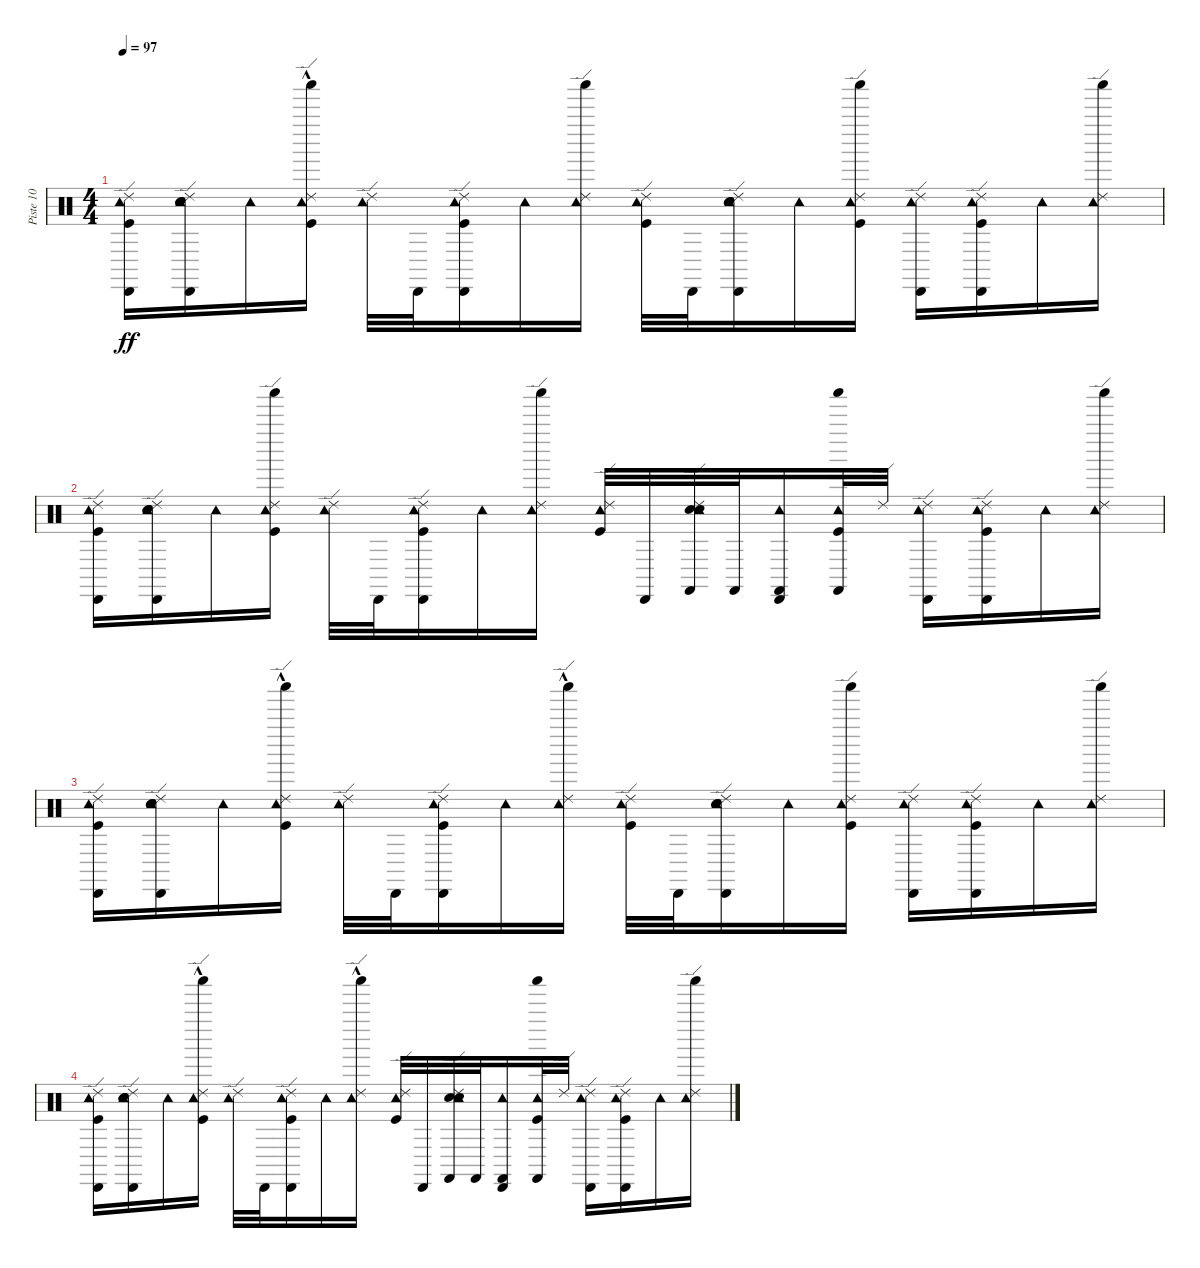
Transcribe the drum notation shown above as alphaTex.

\track ("Piste 10" "Piste 10") {instrument percussion}
\staff {score}
\articulation defaults
\ts (4 4)
\tempo 97
\clef neutral
\ks c
("Cabasa (hit)" "Kick (hit)" "Tambourine (hit)" "Ride (edge) 2").16{dy ff} ("Cabasa (hit)" "Hand Clap (hit)" "Electric Snare (hit)" "Tambourine (hit)" "Ride (edge) 2").16 "Tambourine (hit)".16 ("Shaker (hit)"{hac} "Kick (hit)" "Tambourine (hit)" "Ride (edge) 2").16 ("Tambourine (hit)" "Ride (edge) 2").32 "Cabasa (hit)".32 ("Cabasa (hit)" "Kick (hit)" "Tambourine (hit)" "Ride (edge) 2").16 "Tambourine (hit)".16 ("Shaker (hit)" "Tambourine (hit)" "Ride (edge) 2").16 ("Kick (hit)" "Tambourine (hit)" "Ride (edge) 2").32 "Cabasa (hit)".32 ("Cabasa (hit)" "Hand Clap (hit)" "Electric Snare (hit)" "Tambourine (hit)" "Ride (edge) 2").16 "Tambourine (hit)".16 ("Shaker (hit)" "Kick (hit)" "Tambourine (hit)" "Ride (edge) 2").16 ("Cabasa (hit)" "Tambourine (hit)" "Ride (edge) 2").16 ("Cabasa (hit)" "Kick (hit)" "Tambourine (hit)" "Ride (edge) 2").16 "Tambourine (hit)".16 ("Shaker (hit)" "Tambourine (hit)" "Ride (edge) 2").16 |
("Cabasa (hit)" "Kick (hit)" "Tambourine (hit)" "Ride (edge) 2").16 ("Cabasa (hit)" "Hand Clap (hit)" "Electric Snare (hit)" "Tambourine (hit)" "Ride (edge) 2").16 "Tambourine (hit)".16 ("Shaker (hit)" "Kick (hit)" "Tambourine (hit)" "Ride (edge) 2").16 ("Tambourine (hit)" "Ride (edge) 2").32 "Cabasa (hit)".32 ("Cabasa (hit)" "Kick (hit)" "Tambourine (hit)" "Ride (edge) 2").16 "Tambourine (hit)".16 ("Shaker (hit)" "Tambourine (hit)" "Ride (edge) 2").16 ("Kick (hit)" "Tambourine (hit)" "Ride (edge) 2").32 "Cabasa (hit)".32 ("Castanets (hit)" "Hand Clap (hit)" "Electric Snare (hit)" "Tambourine (hit)" "Ride (edge) 2").32 "Castanets (hit)".32 ("Cabasa (hit)" "Castanets (hit)" "Tambourine (hit)").16 ("Shaker (hit)" "Castanets (hit)" "Kick (hit)" "Tambourine (hit)").32 "Ride (edge) 2".32 ("Cabasa (hit)" "Tambourine (hit)" "Ride (edge) 2").16 ("Cabasa (hit)" "Kick (hit)" "Tambourine (hit)" "Ride (edge) 2").16 "Tambourine (hit)".16 ("Shaker (hit)" "Tambourine (hit)" "Ride (edge) 2").16 |
("Cabasa (hit)" "Kick (hit)" "Tambourine (hit)" "Ride (edge) 2").16 ("Cabasa (hit)" "Hand Clap (hit)" "Electric Snare (hit)" "Tambourine (hit)" "Ride (edge) 2").16 "Tambourine (hit)".16 ("Shaker (hit)"{hac} "Kick (hit)" "Tambourine (hit)" "Ride (edge) 2").16 ("Tambourine (hit)" "Ride (edge) 2").32 "Cabasa (hit)".32 ("Cabasa (hit)" "Kick (hit)" "Tambourine (hit)" "Ride (edge) 2").16 "Tambourine (hit)".16 ("Shaker (hit)"{hac} "Tambourine (hit)" "Ride (edge) 2").16 ("Kick (hit)" "Tambourine (hit)" "Ride (edge) 2").32 "Cabasa (hit)".32 ("Cabasa (hit)" "Hand Clap (hit)" "Electric Snare (hit)" "Tambourine (hit)" "Ride (edge) 2").16 "Tambourine (hit)".16 ("Shaker (hit)" "Kick (hit)" "Tambourine (hit)" "Ride (edge) 2").16 ("Cabasa (hit)" "Tambourine (hit)" "Ride (edge) 2").16 ("Cabasa (hit)" "Kick (hit)" "Tambourine (hit)" "Ride (edge) 2").16 "Tambourine (hit)".16 ("Shaker (hit)" "Tambourine (hit)" "Ride (edge) 2").16 |
("Cabasa (hit)" "Kick (hit)" "Tambourine (hit)" "Ride (edge) 2").16 ("Cabasa (hit)" "Hand Clap (hit)" "Electric Snare (hit)" "Tambourine (hit)" "Ride (edge) 2").16 "Tambourine (hit)".16 ("Shaker (hit)"{hac} "Kick (hit)" "Tambourine (hit)" "Ride (edge) 2").16 ("Tambourine (hit)" "Ride (edge) 2").32 "Cabasa (hit)".32 ("Cabasa (hit)" "Kick (hit)" "Tambourine (hit)" "Ride (edge) 2").16 "Tambourine (hit)".16 ("Shaker (hit)"{hac} "Tambourine (hit)" "Ride (edge) 2").16 ("Kick (hit)" "Tambourine (hit)" "Ride (edge) 2").32 "Cabasa (hit)".32 ("Castanets (hit)" "Hand Clap (hit)" "Electric Snare (hit)" "Tambourine (hit)" "Ride (edge) 2").32 "Castanets (hit)".32 ("Cabasa (hit)" "Castanets (hit)" "Tambourine (hit)").16 ("Shaker (hit)" "Castanets (hit)" "Kick (hit)" "Tambourine (hit)").32 "Ride (edge) 2".32 ("Cabasa (hit)" "Tambourine (hit)" "Ride (edge) 2").16 ("Cabasa (hit)" "Kick (hit)" "Tambourine (hit)" "Ride (edge) 2").16 "Tambourine (hit)".16 ("Shaker (hit)" "Tambourine (hit)" "Ride (edge) 2").16
